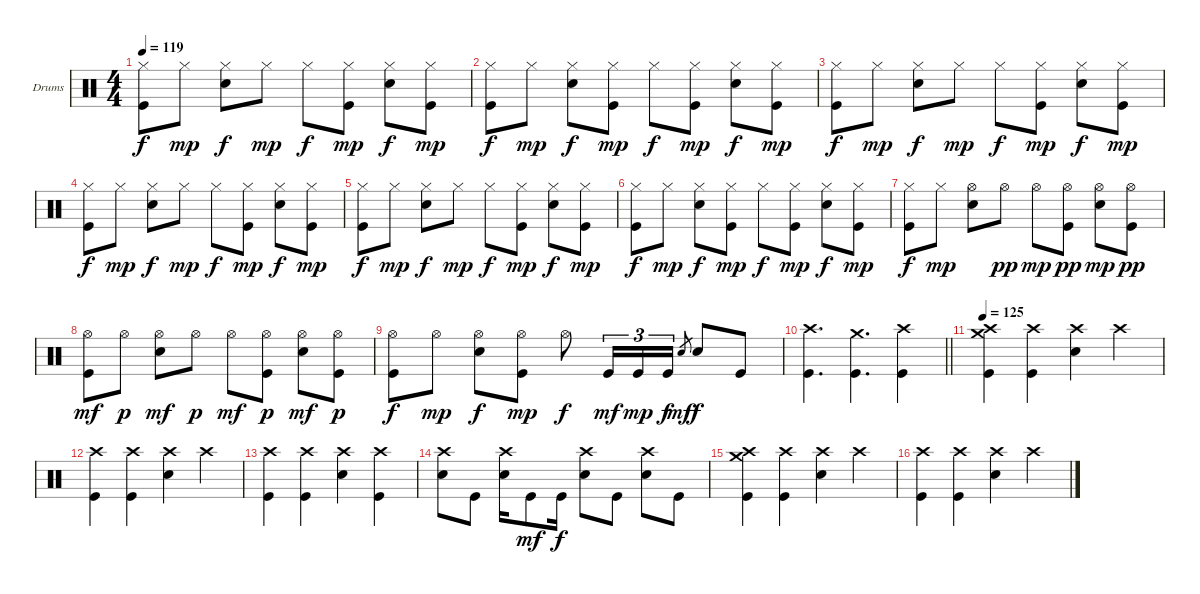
\bracketExtendMode groupsimilarinstruments
\firstSystemTrackNameOrientation horizontal
\otherSystemsTrackNameOrientation horizontal
\track ("Drumkit" "Drums") {instrument percussion}
\staff {score}
\articulation defaults
\ts (4 4)
\tempo 119
\clef neutral
\ks c
("Hi-Hat (closed)" "Kick (hit)").8{dy f} "Hi-Hat (closed)".8{dy mp} ("Hi-Hat (closed)" "Snare (hit) 2").8{dy f} "Hi-Hat (closed)".8{dy mp} "Hi-Hat (closed)".8{dy f} ("Hi-Hat (closed)" "Kick (hit)").8{dy mp} ("Hi-Hat (closed)" "Snare (hit) 2").8{dy f} ("Hi-Hat (closed)" "Kick (hit)").8{dy mp} |
("Hi-Hat (closed)" "Kick (hit)").8{dy f} "Hi-Hat (closed)".8{dy mp} ("Hi-Hat (closed)" "Snare (hit) 2").8{dy f} ("Hi-Hat (closed)" "Kick (hit)").8{dy mp} "Hi-Hat (closed)".8{dy f} ("Hi-Hat (closed)" "Kick (hit)").8{dy mp} ("Hi-Hat (closed)" "Snare (hit) 2").8{dy f} ("Hi-Hat (closed)" "Kick (hit)").8{dy mp} |
("Hi-Hat (closed)" "Kick (hit)").8{dy f} "Hi-Hat (closed)".8{dy mp} ("Hi-Hat (closed)" "Snare (hit) 2").8{dy f} "Hi-Hat (closed)".8{dy mp} "Hi-Hat (closed)".8{dy f} ("Hi-Hat (closed)" "Kick (hit)").8{dy mp} ("Hi-Hat (closed)" "Snare (hit) 2").8{dy f} ("Hi-Hat (closed)" "Kick (hit)").8{dy mp} |
("Hi-Hat (closed)" "Kick (hit)").8{dy f} "Hi-Hat (closed)".8{dy mp} ("Hi-Hat (closed)" "Snare (hit) 2").8{dy f} "Hi-Hat (closed)".8{dy mp} "Hi-Hat (closed)".8{dy f} ("Hi-Hat (closed)" "Kick (hit)").8{dy mp} ("Hi-Hat (closed)" "Snare (hit) 2").8{dy f} ("Hi-Hat (closed)" "Kick (hit)").8{dy mp} |
("Hi-Hat (closed)" "Kick (hit)").8{dy f} "Hi-Hat (closed)".8{dy mp} ("Hi-Hat (closed)" "Snare (hit) 2").8{dy f} "Hi-Hat (closed)".8{dy mp} "Hi-Hat (closed)".8{dy f} ("Hi-Hat (closed)" "Kick (hit)").8{dy mp} ("Hi-Hat (closed)" "Snare (hit) 2").8{dy f} ("Hi-Hat (closed)" "Kick (hit)").8{dy mp} |
("Hi-Hat (closed)" "Kick (hit)").8{dy f} "Hi-Hat (closed)".8{dy mp} ("Hi-Hat (closed)" "Snare (hit) 2").8{dy f} ("Hi-Hat (closed)" "Kick (hit)").8{dy mp} "Hi-Hat (closed)".8{dy f} ("Hi-Hat (closed)" "Kick (hit)").8{dy mp} ("Hi-Hat (closed)" "Snare (hit) 2").8{dy f} ("Hi-Hat (closed)" "Kick (hit)").8{dy mp} |
("Hi-Hat (closed)" "Kick (hit)").8{dy f} "Hi-Hat (closed)".8{dy mp} ("Hi-Hat (open)" "Snare (hit) 2").8 "Hi-Hat (open)".8{dy pp} "Hi-Hat (open)".8{dy mp} ("Hi-Hat (open)" "Kick (hit)").8{dy pp} ("Hi-Hat (open)" "Snare (hit) 2").8{dy mp} ("Hi-Hat (open)" "Kick (hit)").8{dy pp} |
("Hi-Hat (open)" "Kick (hit)").8{dy mf} "Hi-Hat (open)".8{dy p} ("Hi-Hat (open)" "Snare (hit) 2").8{dy mf} "Hi-Hat (open)".8{dy p} "Hi-Hat (open)".8{dy mf} ("Hi-Hat (open)" "Kick (hit)").8{dy p} ("Hi-Hat (open)" "Snare (hit) 2").8{dy mf} ("Hi-Hat (open)" "Kick (hit)").8{dy p} |
("Hi-Hat (open)" "Kick (hit)").8{dy f} "Hi-Hat (open)".8{dy mp} ("Hi-Hat (open)" "Snare (hit) 2").8{dy f} ("Hi-Hat (open)" "Kick (hit)").8{dy mp} "Hi-Hat (open)".8{dy f} "Kick (hit)".16{tu (3 2) dy mf} "Kick (hit)".16{tu (3 2) dy mp} "Kick (hit)".16{tu (3 2) dy f} "Snare (hit) 2".8{gr dy mf} "Snare (hit) 2".8{dy f} "Kick (hit)".8 |
\barLineRight lightlight
("Crash high (hit)" "Kick (hit)").4{d} ("Crash medium (hit)" "Kick (hit)").4{d} ("Crash high (hit)" "Kick (hit)").4 |
\tempo 125
("Crash high (hit)" "Crash medium (hit)" "Kick (hit)").4 ("Crash high (hit)" "Kick (hit)").4 ("Crash high (hit)" "Snare (hit) 2").4 "Crash high (hit)".4 |
("Crash high (hit)" "Kick (hit)").4 ("Crash high (hit)" "Kick (hit)").4 ("Crash high (hit)" "Snare (hit) 2").4 "Crash high (hit)".4 |
("Crash high (hit)" "Kick (hit)").4 ("Crash high (hit)" "Kick (hit)").4 ("Crash high (hit)" "Snare (hit) 2").4 ("Crash high (hit)" "Kick (hit)").4 |
("Crash high (hit)" "Snare (hit) 2").8 "Kick (hit)".8 ("Crash high (hit)" "Snare (hit) 2").16 "Kick (hit)".8{dy mf} "Kick (hit)".16{dy f} ("Crash high (hit)" "Snare (hit) 2").8 "Kick (hit)".8 ("Crash high (hit)" "Snare (hit) 2").8 "Kick (hit)".8 |
("Crash high (hit)" "Crash medium (hit)" "Kick (hit)").4 ("Crash high (hit)" "Kick (hit)").4 ("Crash high (hit)" "Snare (hit) 2").4 "Crash high (hit)".4 |
("Crash high (hit)" "Kick (hit)").4 ("Crash high (hit)" "Kick (hit)").4 ("Crash high (hit)" "Snare (hit) 2").4 "Crash high (hit)".4
